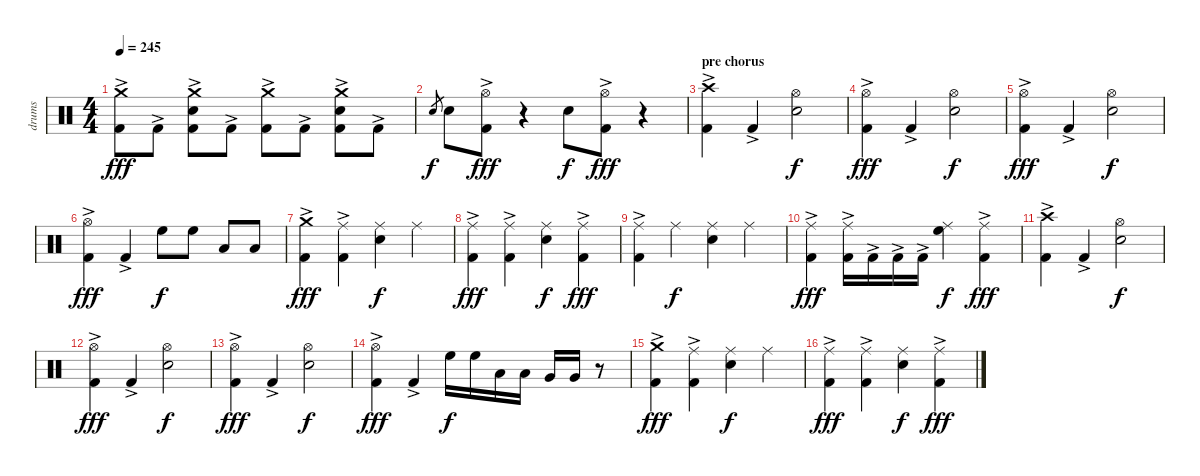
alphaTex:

\track ("drums" "drums") {instrument percussion}
\staff {score}
\articulation defaults
\ts (4 4)
\tempo 245
\clef neutral
\ks c
("Crash medium (hit)" "Kick (hit) 2"{ac}).8{dy fff} "Kick (hit) 2"{ac}.8 ("Crash medium (hit)" "Electric Snare (hit)" "Kick (hit) 2"{ac}).8 "Kick (hit) 2"{ac}.8 ("Crash medium (hit)" "Kick (hit) 2"{ac}).8 "Kick (hit) 2"{ac}.8 ("Crash medium (hit)" "Electric Snare (hit)" "Kick (hit) 2"{ac}).8 "Kick (hit) 2"{ac}.8 |
"Electric Snare (hit)".8{gr dy f} "Electric Snare (hit)".8 ("Hi-Hat (open)" "Kick (hit) 2"{ac}).8{dy fff} r.4 "Electric Snare (hit)".8{dy f} ("Hi-Hat (open)" "Kick (hit) 2"{ac}).8{dy fff} r.4 |
\section ("" "pre chorus")
("Crash high (hit)" "Kick (hit) 2"{ac}).4 "Kick (hit) 2"{ac}.4 ("Hi-Hat (open)" "Electric Snare (hit)").2{dy f} |
("Hi-Hat (open)" "Kick (hit) 2"{ac}).4{dy fff} "Kick (hit) 2"{ac}.4 ("Hi-Hat (open)" "Electric Snare (hit)").2{dy f} |
("Hi-Hat (open)" "Kick (hit) 2"{ac}).4{dy fff} "Kick (hit) 2"{ac}.4 ("Hi-Hat (open)" "Electric Snare (hit)").2{dy f} |
("Hi-Hat (open)" "Kick (hit) 2"{ac}).4{dy fff} "Kick (hit) 2"{ac}.4 "High Floor Tom (hit)".8{dy f} "High Floor Tom (hit)".8 "Low Tom (hit)".8 "Low Tom (hit)".8 |
("Crash medium (hit)" "Kick (hit) 2"{ac}).4{dy fff} ("Ride (middle)" "Kick (hit) 2"{ac}).4 ("Ride (middle)" "Electric Snare (hit)").4{dy f} "Ride (middle)".4 |
("Ride (middle)" "Kick (hit) 2"{ac}).4{dy fff} ("Ride (middle)" "Kick (hit) 2"{ac}).4 ("Ride (middle)" "Electric Snare (hit)").4{dy f} ("Ride (middle)" "Kick (hit) 2"{ac}).4{dy fff} |
("Ride (middle)" "Kick (hit) 2"{ac}).4 "Ride (middle)".4{dy f} ("Ride (middle)" "Electric Snare (hit)").4 "Ride (middle)".4 |
("Ride (middle)" "Kick (hit) 2"{ac}).4{dy fff} ("Ride (middle)" "Kick (hit) 2"{ac}).16 "Kick (hit) 2"{ac}.16 "Kick (hit) 2"{ac}.16 "Kick (hit) 2"{ac}.16 ("Ride (middle)" "High Floor Tom (hit)").4{dy f} ("Ride (middle)" "Kick (hit) 2"{ac}).4{dy fff} |
("Crash high (hit)" "Kick (hit) 2"{ac}).4 "Kick (hit) 2"{ac}.4 ("Hi-Hat (open)" "Electric Snare (hit)").2{dy f} |
("Hi-Hat (open)" "Kick (hit) 2"{ac}).4{dy fff} "Kick (hit) 2"{ac}.4 ("Hi-Hat (open)" "Electric Snare (hit)").2{dy f} |
("Hi-Hat (open)" "Kick (hit) 2"{ac}).4{dy fff} "Kick (hit) 2"{ac}.4 ("Hi-Hat (open)" "Electric Snare (hit)").2{dy f} |
("Hi-Hat (open)" "Kick (hit) 2"{ac}).4{dy fff} "Kick (hit) 2"{ac}.4 "High Floor Tom (hit)".16{dy f} "High Floor Tom (hit)".16 "Low Tom (hit)".16 "Low Tom (hit)".16 "Very Low Tom (hit)".16 "Very Low Tom (hit)".16 r.8 |
("Crash medium (hit)" "Kick (hit) 2"{ac}).4{dy fff} ("Ride (middle)" "Kick (hit) 2"{ac}).4 ("Ride (middle)" "Electric Snare (hit)").4{dy f} "Ride (middle)".4 |
("Ride (middle)" "Kick (hit) 2"{ac}).4{dy fff} ("Ride (middle)" "Kick (hit) 2"{ac}).4 ("Ride (middle)" "Electric Snare (hit)").4{dy f} ("Ride (middle)" "Kick (hit) 2"{ac}).4{dy fff}
